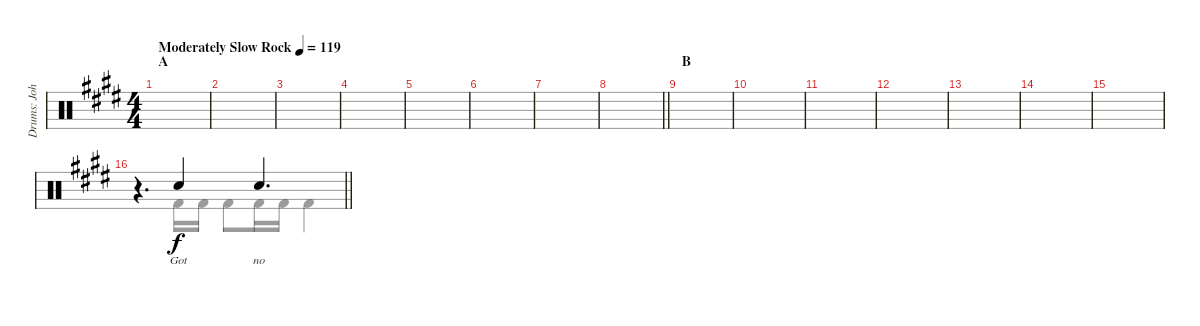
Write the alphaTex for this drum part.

\track ("Drums: John" "Drums: Joh") {instrument percussion}
\staff {score}
\articulation defaults
\voice
\ts (4 4)
\section ("" "A")
\tempo (119 "Moderately Slow Rock")
\tempo 66
\tempo (119 "Moderately Slow Rock")
\clef neutral
\ks e
|
|
|
|
|
|
|
\barLineRight lightlight
|
\section ("" "B")
|
|
|
|
|
|
|
\barLineRight lightlight
r.4{d} "Snare (hit) 2".4{lyrics (0 "Got") lyrics (1 "") lyrics (2 "") lyrics (3 "") lyrics (4 "")} "Snare (hit) 2".4{d lyrics (0 "no") lyrics (1 "") lyrics (2 "") lyrics (3 "") lyrics (4 "")}
\voice
\clef neutral
\ottava regular
\simile none
\ks e
|
|
|
|
|
|
|
\barLineRight lightlight
|
|
|
|
|
|
|
|
\barLineRight lightlight
r.4{d} "Kick (hit) 2".16 "Kick (hit) 2".16 "Kick (hit) 2".8 "Kick (hit) 2".16 "Kick (hit) 2".16 "Kick (hit) 2".4
